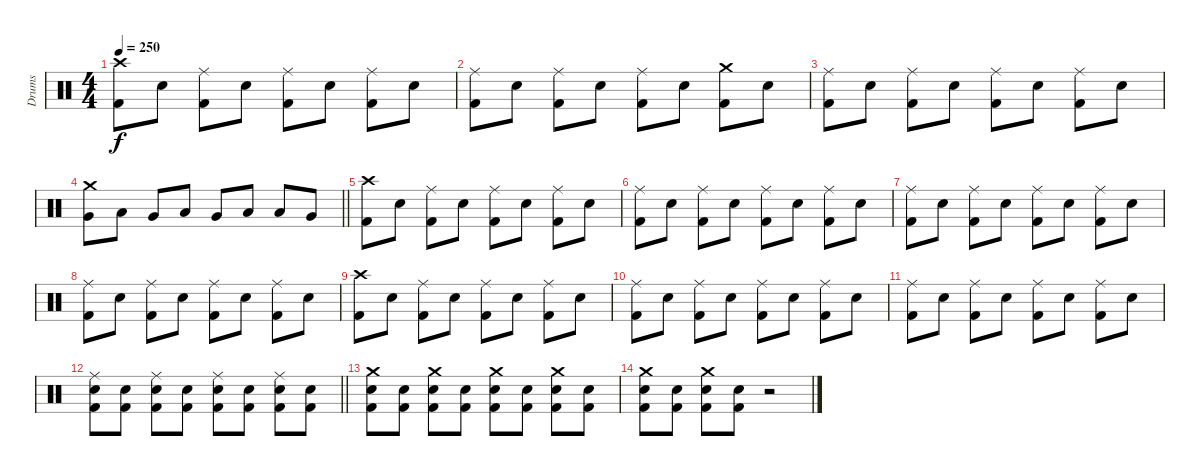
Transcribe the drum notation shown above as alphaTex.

\track ("Drums" "Drums") {instrument percussion}
\staff {score}
\articulation defaults
\ts (4 4)
\tempo 250
\clef neutral
\ks c
("Crash high (hit)" "Kick (hit) 2").8{dy f} "Electric Snare (hit)".8 ("Ride (middle)" "Kick (hit) 2").8 "Electric Snare (hit)".8 ("Ride (middle)" "Kick (hit) 2").8 "Electric Snare (hit)".8 ("Ride (middle)" "Kick (hit) 2").8 "Electric Snare (hit)".8 |
("Ride (middle)" "Kick (hit) 2").8 "Electric Snare (hit)".8 ("Ride (middle)" "Kick (hit) 2").8 "Electric Snare (hit)".8 ("Ride (middle)" "Kick (hit) 2").8 "Electric Snare (hit)".8 ("Crash medium (hit)" "Kick (hit) 2").8 "Electric Snare (hit)".8 |
("Ride (middle)" "Kick (hit) 2").8 "Electric Snare (hit)".8 ("Ride (middle)" "Kick (hit) 2").8 "Electric Snare (hit)".8 ("Ride (middle)" "Kick (hit) 2").8 "Electric Snare (hit)".8 ("Ride (middle)" "Kick (hit) 2").8 "Electric Snare (hit)".8 |
\barLineRight lightlight
("Crash medium (hit)" "Very Low Tom (hit)").8 "Low Tom (hit)".8 "Very Low Tom (hit)".8 "Low Floor Tom (hit)".8 "Very Low Tom (hit)".8 "Low Floor Tom (hit)".8 "Low Tom (hit)".8 "Very Low Tom (hit)".8 |
("Crash high (hit)" "Kick (hit) 2").8 "Electric Snare (hit)".8 ("Ride (middle)" "Kick (hit) 2").8 "Electric Snare (hit)".8 ("Ride (middle)" "Kick (hit) 2").8 "Electric Snare (hit)".8 ("Ride (middle)" "Kick (hit) 2").8 "Electric Snare (hit)".8 |
("Ride (middle)" "Kick (hit) 2").8 "Electric Snare (hit)".8 ("Ride (middle)" "Kick (hit) 2").8 "Electric Snare (hit)".8 ("Ride (middle)" "Kick (hit) 2").8 "Electric Snare (hit)".8 ("Ride (middle)" "Kick (hit) 2").8 "Electric Snare (hit)".8 |
("Ride (middle)" "Kick (hit) 2").8 "Electric Snare (hit)".8 ("Ride (middle)" "Kick (hit) 2").8 "Electric Snare (hit)".8 ("Ride (middle)" "Kick (hit) 2").8 "Electric Snare (hit)".8 ("Ride (middle)" "Kick (hit) 2").8 "Electric Snare (hit)".8 |
("Ride (middle)" "Kick (hit) 2").8 "Electric Snare (hit)".8 ("Ride (middle)" "Kick (hit) 2").8 "Electric Snare (hit)".8 ("Ride (middle)" "Kick (hit) 2").8 "Electric Snare (hit)".8 ("Ride (middle)" "Kick (hit) 2").8 "Electric Snare (hit)".8 |
("Crash high (hit)" "Kick (hit) 2").8 "Electric Snare (hit)".8 ("Ride (middle)" "Kick (hit) 2").8 "Electric Snare (hit)".8 ("Ride (middle)" "Kick (hit) 2").8 "Electric Snare (hit)".8 ("Ride (middle)" "Kick (hit) 2").8 "Electric Snare (hit)".8 |
("Ride (middle)" "Kick (hit) 2").8 "Electric Snare (hit)".8 ("Ride (middle)" "Kick (hit) 2").8 "Electric Snare (hit)".8 ("Ride (middle)" "Kick (hit) 2").8 "Electric Snare (hit)".8 ("Ride (middle)" "Kick (hit) 2").8 "Electric Snare (hit)".8 |
("Ride (middle)" "Kick (hit) 2").8 "Electric Snare (hit)".8 ("Ride (middle)" "Kick (hit) 2").8 "Electric Snare (hit)".8 ("Ride (middle)" "Kick (hit) 2").8 "Electric Snare (hit)".8 ("Ride (middle)" "Kick (hit) 2").8 "Electric Snare (hit)".8 |
\barLineRight lightlight
("Ride (middle)" "Electric Snare (hit)" "Kick (hit) 2").8 ("Electric Snare (hit)" "Kick (hit) 2").8 ("Ride (middle)" "Electric Snare (hit)" "Kick (hit) 2").8 ("Electric Snare (hit)" "Kick (hit) 2").8 ("Ride (middle)" "Electric Snare (hit)" "Kick (hit) 2").8 ("Electric Snare (hit)" "Kick (hit) 2").8 ("Ride (middle)" "Electric Snare (hit)" "Kick (hit) 2").8 ("Electric Snare (hit)" "Kick (hit) 2").8 |
("Crash medium (hit)" "Electric Snare (hit)" "Kick (hit) 2").8 ("Electric Snare (hit)" "Kick (hit) 2").8 ("Crash medium (hit)" "Electric Snare (hit)" "Kick (hit) 2").8 ("Electric Snare (hit)" "Kick (hit) 2").8 ("Crash medium (hit)" "Electric Snare (hit)" "Kick (hit) 2").8 ("Electric Snare (hit)" "Kick (hit) 2").8 ("Crash medium (hit)" "Electric Snare (hit)" "Kick (hit) 2").8 ("Electric Snare (hit)" "Kick (hit) 2").8 |
("Crash medium (hit)" "Electric Snare (hit)" "Kick (hit) 2").8 ("Electric Snare (hit)" "Kick (hit) 2").8 ("Crash medium (hit)" "Electric Snare (hit)" "Kick (hit) 2").8 ("Electric Snare (hit)" "Kick (hit) 2").8 r.2
